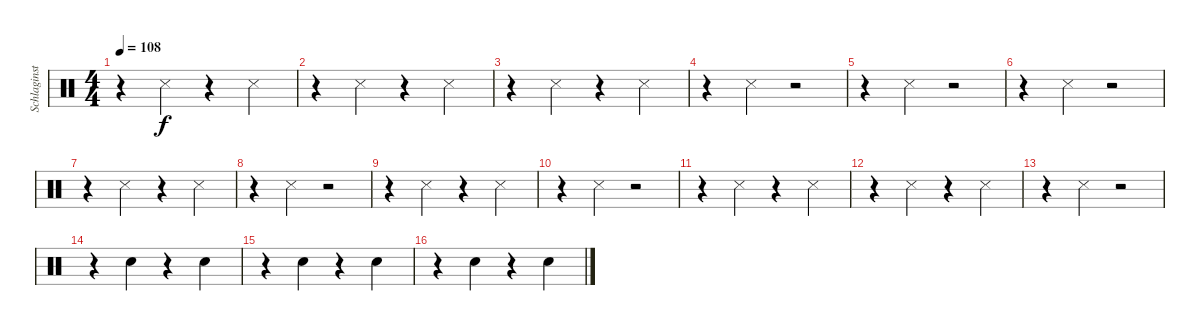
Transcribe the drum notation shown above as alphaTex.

\track ("Schlaginstrumente - Auswahl" "Schlaginst") {instrument percussion}
\staff {score}
\articulation defaults
\ts (4 4)
\tempo 108
\clef neutral
\ks c
r.4{dy f} "Snare (side stick) 3".4 r.4 "Snare (side stick) 3".4 |
r.4 "Snare (side stick) 3".4 r.4 "Snare (side stick) 3".4 |
r.4 "Snare (side stick) 3".4 r.4 "Snare (side stick) 3".4 |
r.4 "Snare (side stick) 3".4 r.2 |
r.4 "Snare (side stick) 3".4 r.2 |
r.4 "Snare (side stick) 3".4 r.2 |
r.4 "Snare (side stick) 3".4 r.4 "Snare (side stick) 3".4 |
r.4 "Snare (side stick) 3".4 r.2 |
r.4 "Snare (side stick) 3".4 r.4 "Snare (side stick) 3".4 |
r.4 "Snare (side stick) 3".4 r.2 |
r.4 "Snare (side stick) 3".4 r.4 "Snare (side stick) 3".4 |
r.4 "Snare (side stick) 3".4 r.4 "Snare (side stick) 3".4 |
r.4 "Snare (side stick) 3".4 r.2 |
r.4 "Snare (hit)".4 r.4 "Electric Snare (hit)".4 |
r.4 "Electric Snare (hit)".4 r.4 "Electric Snare (hit)".4 |
r.4 "Electric Snare (hit)".4 r.4 "Electric Snare (hit)".4
